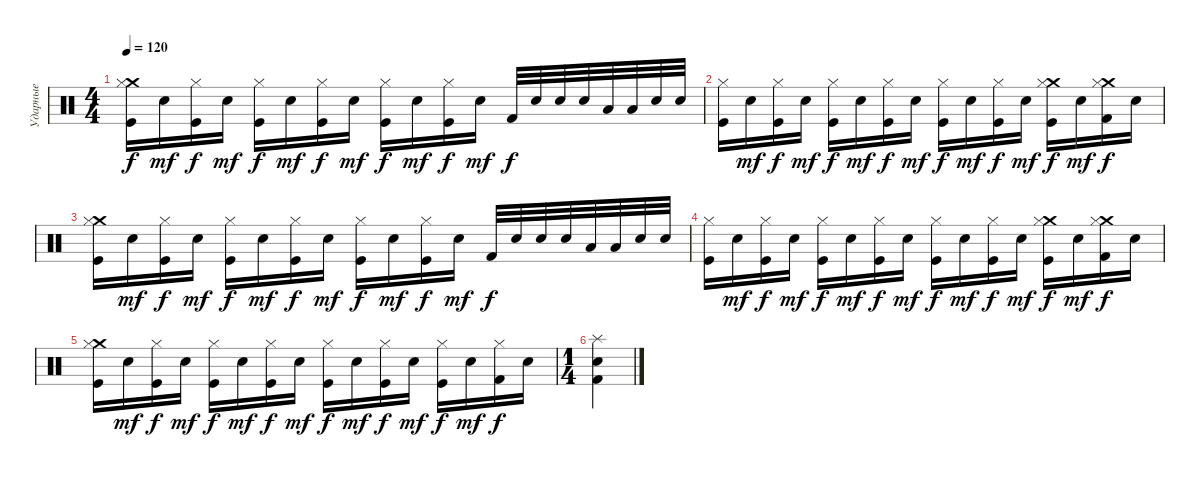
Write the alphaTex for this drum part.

\track ("Ударные" "Ударные") {instrument percussion}
\staff {score}
\articulation defaults
\ts (4 4)
\tempo 120
\clef neutral
\ks c
("Crash medium (hit)" "Hi-Hat (closed)" "Kick (hit)").16{dy f} "Electric Snare (hit)".16{dy mf} ("Hi-Hat (closed)" "Kick (hit)").16{dy f} "Electric Snare (hit)".16{dy mf} ("Hi-Hat (closed)" "Kick (hit)").16{dy f} "Electric Snare (hit)".16{dy mf} ("Hi-Hat (closed)" "Kick (hit)").16{dy f} "Electric Snare (hit)".16{dy mf} ("Hi-Hat (closed)" "Kick (hit)").16{dy f} "Electric Snare (hit)".16{dy mf} ("Hi-Hat (closed)" "Kick (hit)").16{dy f} "Electric Snare (hit)".16{dy mf} "Kick (hit) 2".32{dy f} "Electric Snare (hit)".32 "Electric Snare (hit)".32 "Electric Snare (hit)".32 "Low Tom (hit)".32 "Low Tom (hit)".32 "Snare (hit) 2".32 "Snare (hit) 2".32 |
("Hi-Hat (closed)" "Kick (hit)").16 "Electric Snare (hit)".16{dy mf} ("Hi-Hat (closed)" "Kick (hit)").16{dy f} "Electric Snare (hit)".16{dy mf} ("Hi-Hat (closed)" "Kick (hit)").16{dy f} "Electric Snare (hit)".16{dy mf} ("Hi-Hat (closed)" "Kick (hit)").16{dy f} "Electric Snare (hit)".16{dy mf} ("Hi-Hat (closed)" "Kick (hit)").16{dy f} "Electric Snare (hit)".16{dy mf} ("Hi-Hat (closed)" "Kick (hit)").16{dy f} "Electric Snare (hit)".16{dy mf} ("Crash medium (hit)" "Hi-Hat (closed)" "Kick (hit)").16{dy f} "Electric Snare (hit)".16{dy mf} ("Crash medium (hit)" "Hi-Hat (closed)" "Kick (hit) 2").16{dy f} "Electric Snare (hit)".16 |
("Crash medium (hit)" "Hi-Hat (closed)" "Kick (hit)").16 "Electric Snare (hit)".16{dy mf} ("Hi-Hat (closed)" "Kick (hit)").16{dy f} "Electric Snare (hit)".16{dy mf} ("Hi-Hat (closed)" "Kick (hit)").16{dy f} "Electric Snare (hit)".16{dy mf} ("Hi-Hat (closed)" "Kick (hit)").16{dy f} "Electric Snare (hit)".16{dy mf} ("Hi-Hat (closed)" "Kick (hit)").16{dy f} "Electric Snare (hit)".16{dy mf} ("Hi-Hat (closed)" "Kick (hit)").16{dy f} "Electric Snare (hit)".16{dy mf} "Kick (hit) 2".32{dy f} "Electric Snare (hit)".32 "Electric Snare (hit)".32 "Electric Snare (hit)".32 "Low Tom (hit)".32 "Low Tom (hit)".32 "Snare (hit) 2".32 "Snare (hit) 2".32 |
("Hi-Hat (closed)" "Kick (hit)").16 "Electric Snare (hit)".16{dy mf} ("Hi-Hat (closed)" "Kick (hit)").16{dy f} "Electric Snare (hit)".16{dy mf} ("Hi-Hat (closed)" "Kick (hit)").16{dy f} "Electric Snare (hit)".16{dy mf} ("Hi-Hat (closed)" "Kick (hit)").16{dy f} "Electric Snare (hit)".16{dy mf} ("Hi-Hat (closed)" "Kick (hit)").16{dy f} "Electric Snare (hit)".16{dy mf} ("Hi-Hat (closed)" "Kick (hit)").16{dy f} "Electric Snare (hit)".16{dy mf} ("Crash medium (hit)" "Hi-Hat (closed)" "Kick (hit)").16{dy f} "Electric Snare (hit)".16{dy mf} ("Crash medium (hit)" "Hi-Hat (closed)" "Kick (hit) 2").16{dy f} "Electric Snare (hit)".16 |
("Crash medium (hit)" "Hi-Hat (closed)" "Kick (hit)").16 "Electric Snare (hit)".16{dy mf} ("Hi-Hat (closed)" "Kick (hit)").16{dy f} "Electric Snare (hit)".16{dy mf} ("Hi-Hat (closed)" "Kick (hit)").16{dy f} "Electric Snare (hit)".16{dy mf} ("Hi-Hat (closed)" "Kick (hit)").16{dy f} "Electric Snare (hit)".16{dy mf} ("Hi-Hat (closed)" "Kick (hit)").16{dy f} "Electric Snare (hit)".16{dy mf} ("Hi-Hat (closed)" "Kick (hit)").16{dy f} "Electric Snare (hit)".16{dy mf} ("Hi-Hat (closed)" "Kick (hit)").16{dy f} "Electric Snare (hit)".16{dy mf} ("Hi-Hat (closed)" "Kick (hit) 2").16{dy f} "Electric Snare (hit)".16 |
\ts (1 4)
("Splash (hit)" "Electric Snare (hit)" "Kick (hit) 2").4
